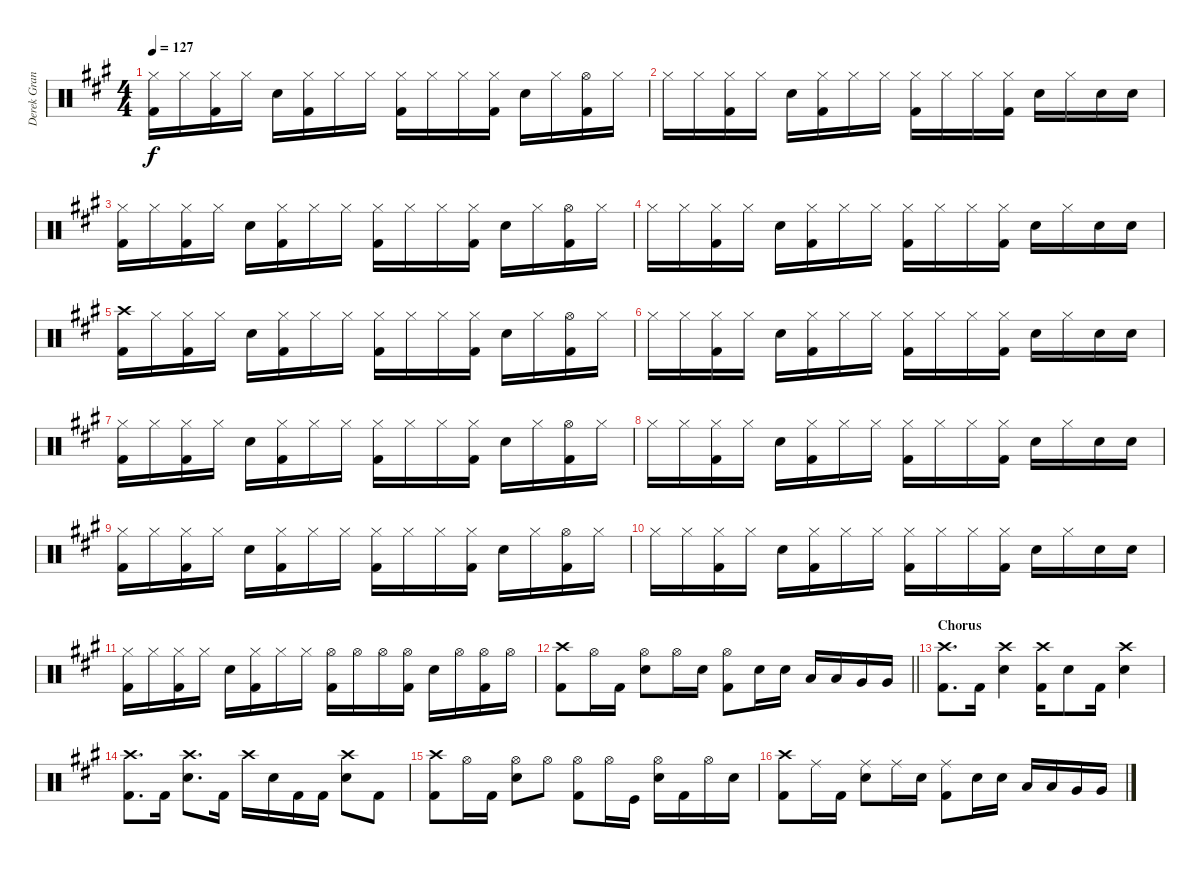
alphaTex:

\track ("Derek Grant - Drums" "Derek Gran") {instrument percussion}
\staff {score}
\articulation defaults
\ts (4 4)
\tempo 127
\clef neutral
\ks a
("Hi-Hat (closed)" "Kick (hit) 2").16{dy f} "Hi-Hat (closed)".16 ("Hi-Hat (closed)" "Kick (hit) 2").16 "Hi-Hat (closed)".16 "Snare (hit) 2".16 ("Kick (hit) 2" "Hi-Hat (closed)").16 "Hi-Hat (closed)".16 "Hi-Hat (closed)".16 ("Hi-Hat (closed)" "Kick (hit) 2").16 "Hi-Hat (closed)".16 "Hi-Hat (closed)".16 ("Hi-Hat (closed)" "Kick (hit) 2").16 "Snare (hit) 2".16 "Hi-Hat (closed)".16 ("Hi-Hat (open)" "Kick (hit) 2").16 "Hi-Hat (closed)".16 |
"Hi-Hat (closed)".16 "Hi-Hat (closed)".16 ("Hi-Hat (closed)" "Kick (hit) 2").16 "Hi-Hat (closed)".16 "Snare (hit) 2".16 ("Kick (hit) 2" "Hi-Hat (closed)").16 "Hi-Hat (closed)".16 "Hi-Hat (closed)".16 ("Hi-Hat (closed)" "Kick (hit) 2").16 "Hi-Hat (closed)".16 "Hi-Hat (closed)".16 ("Hi-Hat (closed)" "Kick (hit) 2").16 "Snare (hit) 2".16 "Hi-Hat (closed)".16 "Electric Snare (hit)".16 "Electric Snare (hit)".16 |
("Hi-Hat (closed)" "Kick (hit) 2").16 "Hi-Hat (closed)".16 ("Hi-Hat (closed)" "Kick (hit) 2").16 "Hi-Hat (closed)".16 "Snare (hit) 2".16 ("Kick (hit) 2" "Hi-Hat (closed)").16 "Hi-Hat (closed)".16 "Hi-Hat (closed)".16 ("Hi-Hat (closed)" "Kick (hit) 2").16 "Hi-Hat (closed)".16 "Hi-Hat (closed)".16 ("Hi-Hat (closed)" "Kick (hit) 2").16 "Snare (hit) 2".16 "Hi-Hat (closed)".16 ("Hi-Hat (open)" "Kick (hit) 2").16 "Hi-Hat (closed)".16 |
"Hi-Hat (closed)".16 "Hi-Hat (closed)".16 ("Hi-Hat (closed)" "Kick (hit) 2").16 "Hi-Hat (closed)".16 "Snare (hit) 2".16 ("Kick (hit) 2" "Hi-Hat (closed)").16 "Hi-Hat (closed)".16 "Hi-Hat (closed)".16 ("Hi-Hat (closed)" "Kick (hit) 2").16 "Hi-Hat (closed)".16 "Hi-Hat (closed)".16 ("Hi-Hat (closed)" "Kick (hit) 2").16 "Snare (hit) 2".16 "Hi-Hat (closed)".16 "Electric Snare (hit)".16 "Electric Snare (hit)".16 |
("Crash high (hit)" "Kick (hit) 2").16 "Hi-Hat (closed)".16 ("Hi-Hat (closed)" "Kick (hit) 2").16 "Hi-Hat (closed)".16 "Snare (hit) 2".16 ("Kick (hit) 2" "Hi-Hat (closed)").16 "Hi-Hat (closed)".16 "Hi-Hat (closed)".16 ("Hi-Hat (closed)" "Kick (hit) 2").16 "Hi-Hat (closed)".16 "Hi-Hat (closed)".16 ("Hi-Hat (closed)" "Kick (hit) 2").16 "Snare (hit) 2".16 "Hi-Hat (closed)".16 ("Hi-Hat (open)" "Kick (hit) 2").16 "Hi-Hat (closed)".16 |
"Hi-Hat (closed)".16 "Hi-Hat (closed)".16 ("Hi-Hat (closed)" "Kick (hit) 2").16 "Hi-Hat (closed)".16 "Snare (hit) 2".16 ("Kick (hit) 2" "Hi-Hat (closed)").16 "Hi-Hat (closed)".16 "Hi-Hat (closed)".16 ("Hi-Hat (closed)" "Kick (hit) 2").16 "Hi-Hat (closed)".16 "Hi-Hat (closed)".16 ("Hi-Hat (closed)" "Kick (hit) 2").16 "Snare (hit) 2".16 "Hi-Hat (closed)".16 "Electric Snare (hit)".16 "Electric Snare (hit)".16 |
("Hi-Hat (closed)" "Kick (hit) 2").16 "Hi-Hat (closed)".16 ("Hi-Hat (closed)" "Kick (hit) 2").16 "Hi-Hat (closed)".16 "Snare (hit) 2".16 ("Kick (hit) 2" "Hi-Hat (closed)").16 "Hi-Hat (closed)".16 "Hi-Hat (closed)".16 ("Hi-Hat (closed)" "Kick (hit) 2").16 "Hi-Hat (closed)".16 "Hi-Hat (closed)".16 ("Hi-Hat (closed)" "Kick (hit) 2").16 "Snare (hit) 2".16 "Hi-Hat (closed)".16 ("Hi-Hat (open)" "Kick (hit) 2").16 "Hi-Hat (closed)".16 |
"Hi-Hat (closed)".16 "Hi-Hat (closed)".16 ("Hi-Hat (closed)" "Kick (hit) 2").16 "Hi-Hat (closed)".16 "Snare (hit) 2".16 ("Kick (hit) 2" "Hi-Hat (closed)").16 "Hi-Hat (closed)".16 "Hi-Hat (closed)".16 ("Hi-Hat (closed)" "Kick (hit) 2").16 "Hi-Hat (closed)".16 "Hi-Hat (closed)".16 ("Hi-Hat (closed)" "Kick (hit) 2").16 "Snare (hit) 2".16 "Hi-Hat (closed)".16 "Electric Snare (hit)".16 "Electric Snare (hit)".16 |
("Hi-Hat (closed)" "Kick (hit) 2").16 "Hi-Hat (closed)".16 ("Hi-Hat (closed)" "Kick (hit) 2").16 "Hi-Hat (closed)".16 "Snare (hit) 2".16 ("Kick (hit) 2" "Hi-Hat (closed)").16 "Hi-Hat (closed)".16 "Hi-Hat (closed)".16 ("Hi-Hat (closed)" "Kick (hit) 2").16 "Hi-Hat (closed)".16 "Hi-Hat (closed)".16 ("Hi-Hat (closed)" "Kick (hit) 2").16 "Snare (hit) 2".16 "Hi-Hat (closed)".16 ("Hi-Hat (open)" "Kick (hit) 2").16 "Hi-Hat (closed)".16 |
"Hi-Hat (closed)".16 "Hi-Hat (closed)".16 ("Hi-Hat (closed)" "Kick (hit) 2").16 "Hi-Hat (closed)".16 "Snare (hit) 2".16 ("Kick (hit) 2" "Hi-Hat (closed)").16 "Hi-Hat (closed)".16 "Hi-Hat (closed)".16 ("Hi-Hat (closed)" "Kick (hit) 2").16 "Hi-Hat (closed)".16 "Hi-Hat (closed)".16 ("Hi-Hat (closed)" "Kick (hit) 2").16 "Snare (hit) 2".16 "Hi-Hat (closed)".16 "Electric Snare (hit)".16 "Electric Snare (hit)".16 |
("Hi-Hat (closed)" "Kick (hit) 2").16 "Hi-Hat (closed)".16 ("Hi-Hat (closed)" "Kick (hit) 2").16 "Hi-Hat (closed)".16 "Snare (hit) 2".16 ("Kick (hit) 2" "Hi-Hat (closed)").16 "Hi-Hat (closed)".16 "Hi-Hat (closed)".16 ("Hi-Hat (open)" "Kick (hit) 2").16 "Hi-Hat (open)".16 "Hi-Hat (open)".16 ("Hi-Hat (open)" "Kick (hit) 2").16 "Snare (hit) 2".16 "Hi-Hat (open)".16 ("Hi-Hat (open)" "Kick (hit) 2").16 "Hi-Hat (open)".16 |
\barLineRight lightlight
("Crash high (hit)" "Kick (hit) 2").8 "Hi-Hat (open)".16 "Kick (hit) 2".16 ("Snare (hit) 2" "Hi-Hat (open)").8 "Hi-Hat (open)".16 "Snare (hit) 2".16 ("Kick (hit) 2" "Hi-Hat (open)").8 "Snare (hit) 2".16 "Snare (hit) 2".16 "Low Tom (hit)".16 "Low Tom (hit)".16 "Very Low Tom (hit)".16 "Very Low Tom (hit)".16 |
\section ("" "Chorus")
("Crash high (hit)" "Kick (hit) 2").8{d} "Kick (hit) 2".16 ("Snare (hit) 2" "Crash high (hit)").4 ("Crash high (hit)" "Kick (hit) 2").16 "Snare (hit) 2".8 "Kick (hit) 2".16 ("Snare (hit) 2" "Crash high (hit)").4 |
("Crash high (hit)" "Kick (hit) 2").8{d} "Kick (hit) 2".16 ("Snare (hit) 2" "Crash high (hit)").8{d} "Kick (hit) 2".16 "Crash high (hit)".16 "Snare (hit) 2".16 "Kick (hit) 2".16 "Kick (hit) 2".16 ("Snare (hit) 2" "Crash high (hit)").8 "Kick (hit) 2".8 |
("Crash high (hit)" "Kick (hit) 2").8 "Hi-Hat (open)".16 "Kick (hit) 2".16 ("Snare (hit) 2" "Hi-Hat (open)").8 "Hi-Hat (open)".8 ("Hi-Hat (open)" "Kick (hit) 2").8 "Hi-Hat (open)".16 "Kick (hit)".16 ("Hi-Hat (open)" "Snare (hit) 2").16 "Kick (hit) 2".16 "Hi-Hat (open)".16 "Snare (hit) 2".16 |
("Crash high (hit)" "Kick (hit) 2").8 "Ride (middle)".16 "Kick (hit) 2".16 ("Snare (hit) 2" "Ride (middle)").8 "Ride (middle)".16 "Snare (hit) 2".16 ("Ride (middle)" "Kick (hit) 2").8 "Snare (hit) 2".16 "Snare (hit) 2".16 "Low Tom (hit)".16 "Low Tom (hit)".16 "Very Low Tom (hit)".16 "Very Low Tom (hit)".16
